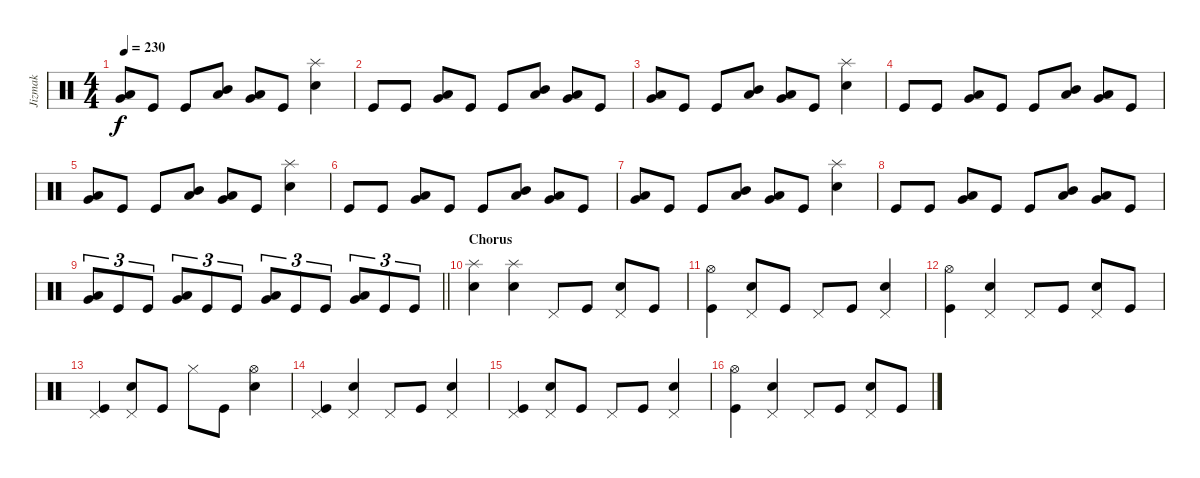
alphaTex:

\track ("Jizmak" "Jizmak") {instrument percussion}
\staff {score}
\articulation defaults
\ts (4 4)
\tempo 230
\clef neutral
\ks c
("Low Tom (hit)" "Very Low Tom (hit)").8{dy f} "Kick (hit)".8 "Kick (hit)".8 ("Mid Tom (hit)" "Low Tom (hit)").8 ("Low Tom (hit)" "Very Low Tom (hit)").8 "Kick (hit)".8 ("Splash (hit)" "Snare (hit) 2").4 |
"Kick (hit)".8 "Kick (hit)".8 ("Low Tom (hit)" "Very Low Tom (hit)").8 "Kick (hit)".8 "Kick (hit)".8 ("Mid Tom (hit)" "Low Tom (hit)").8 ("Low Tom (hit)" "Very Low Tom (hit)").8 "Kick (hit)".8 |
("Low Tom (hit)" "Very Low Tom (hit)").8 "Kick (hit)".8 "Kick (hit)".8 ("Mid Tom (hit)" "Low Tom (hit)").8 ("Low Tom (hit)" "Very Low Tom (hit)").8 "Kick (hit)".8 ("Splash (hit)" "Snare (hit) 2").4 |
"Kick (hit)".8 "Kick (hit)".8 ("Low Tom (hit)" "Very Low Tom (hit)").8 "Kick (hit)".8 "Kick (hit)".8 ("Mid Tom (hit)" "Low Tom (hit)").8 ("Low Tom (hit)" "Very Low Tom (hit)").8 "Kick (hit)".8 |
("Low Tom (hit)" "Very Low Tom (hit)").8 "Kick (hit)".8 "Kick (hit)".8 ("Mid Tom (hit)" "Low Tom (hit)").8 ("Low Tom (hit)" "Very Low Tom (hit)").8 "Kick (hit)".8 ("Splash (hit)" "Snare (hit) 2").4 |
"Kick (hit)".8 "Kick (hit)".8 ("Low Tom (hit)" "Very Low Tom (hit)").8 "Kick (hit)".8 "Kick (hit)".8 ("Mid Tom (hit)" "Low Tom (hit)").8 ("Low Tom (hit)" "Very Low Tom (hit)").8 "Kick (hit)".8 |
("Low Tom (hit)" "Very Low Tom (hit)").8 "Kick (hit)".8 "Kick (hit)".8 ("Mid Tom (hit)" "Low Tom (hit)").8 ("Low Tom (hit)" "Very Low Tom (hit)").8 "Kick (hit)".8 ("Splash (hit)" "Snare (hit) 2").4 |
"Kick (hit)".8 "Kick (hit)".8 ("Low Tom (hit)" "Very Low Tom (hit)").8 "Kick (hit)".8 "Kick (hit)".8 ("Mid Tom (hit)" "Low Tom (hit)").8 ("Low Tom (hit)" "Very Low Tom (hit)").8 "Kick (hit)".8 |
\barLineRight lightlight
("Low Tom (hit)" "Very Low Tom (hit)").8{tu (3 2)} "Kick (hit)".8{tu (3 2)} "Kick (hit)".8{tu (3 2)} ("Low Tom (hit)" "Very Low Tom (hit)").8{tu (3 2)} "Kick (hit)".8{tu (3 2)} "Kick (hit)".8{tu (3 2)} ("Low Tom (hit)" "Very Low Tom (hit)").8{tu (3 2)} "Kick (hit)".8{tu (3 2)} "Kick (hit)".8{tu (3 2)} ("Low Tom (hit)" "Very Low Tom (hit)").8{tu (3 2)} "Kick (hit)".8{tu (3 2)} "Kick (hit)".8{tu (3 2)} |
\section ("" "Chorus")
("Splash (hit)" "Snare (hit) 2").4 ("Splash (hit)" "Snare (hit) 2").4 "Pedal Hi-Hat (hit)".8 "Kick (hit)".8 ("Pedal Hi-Hat (hit)" "Snare (hit) 2").8 "Kick (hit)".8 |
("Hi-Hat (open)" "Kick (hit)").4 ("Pedal Hi-Hat (hit)" "Snare (hit) 2").8 "Kick (hit)".8 "Pedal Hi-Hat (hit)".8 "Kick (hit)".8 ("Pedal Hi-Hat (hit)" "Snare (hit) 2").4 |
("Hi-Hat (open)" "Kick (hit)").4 ("Pedal Hi-Hat (hit)" "Snare (hit) 2").4 "Pedal Hi-Hat (hit)".8 "Kick (hit)".8 ("Pedal Hi-Hat (hit)" "Snare (hit) 2").8 "Kick (hit)".8 |
("Pedal Hi-Hat (hit)" "Kick (hit)").4 ("Pedal Hi-Hat (hit)" "Snare (hit) 2").8 "Kick (hit)".8 "Hi-Hat (closed)".8 "Kick (hit)".8 ("Hi-Hat (open)" "Snare (hit) 2").4 |
("Pedal Hi-Hat (hit)" "Kick (hit)").4 ("Pedal Hi-Hat (hit)" "Snare (hit) 2").4 "Pedal Hi-Hat (hit)".8 "Kick (hit)".8 ("Pedal Hi-Hat (hit)" "Snare (hit) 2").4 |
("Pedal Hi-Hat (hit)" "Kick (hit)").4 ("Pedal Hi-Hat (hit)" "Snare (hit) 2").8 "Kick (hit)".8 "Pedal Hi-Hat (hit)".8 "Kick (hit)".8 ("Pedal Hi-Hat (hit)" "Snare (hit) 2").4 |
("Hi-Hat (open)" "Kick (hit)").4 ("Pedal Hi-Hat (hit)" "Snare (hit) 2").4 "Pedal Hi-Hat (hit)".8 "Kick (hit)".8 ("Pedal Hi-Hat (hit)" "Snare (hit) 2").8 "Kick (hit)".8
